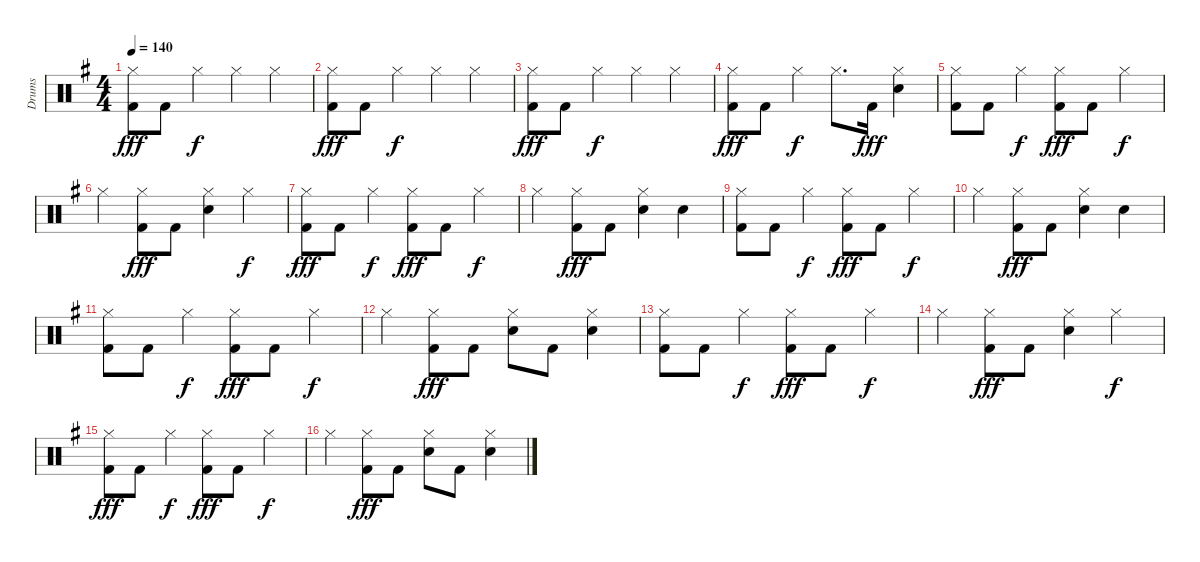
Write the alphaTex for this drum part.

\track ("Drums" "Drums") {instrument percussion}
\staff {score}
\articulation defaults
\ts (4 4)
\tempo 140
\clef neutral
\ks eminor
("Hi-Hat (closed)" "Kick (hit) 2").8{dy fff} "Kick (hit) 2".8 "Hi-Hat (closed)".4{dy f} "Hi-Hat (closed)".4 "Hi-Hat (closed)".4 |
("Hi-Hat (closed)" "Kick (hit) 2").8{dy fff} "Kick (hit) 2".8 "Hi-Hat (closed)".4{dy f} "Hi-Hat (closed)".4 "Hi-Hat (closed)".4 |
("Hi-Hat (closed)" "Kick (hit) 2").8{dy fff} "Kick (hit) 2".8 "Hi-Hat (closed)".4{dy f} "Hi-Hat (closed)".4 "Hi-Hat (closed)".4 |
("Hi-Hat (closed)" "Kick (hit) 2").8{dy fff} "Kick (hit) 2".8 "Hi-Hat (closed)".4{dy f} "Hi-Hat (closed)".8{d} "Kick (hit) 2".16{dy fff} ("Electric Snare (hit)" "Hi-Hat (closed)").4 |
("Hi-Hat (closed)" "Kick (hit) 2").8 "Kick (hit) 2".8 "Hi-Hat (closed)".4{dy f} ("Hi-Hat (closed)" "Kick (hit) 2").8{dy fff} "Kick (hit) 2".8 "Hi-Hat (closed)".4{dy f} |
"Hi-Hat (closed)".4 ("Hi-Hat (closed)" "Kick (hit) 2").8{dy fff} "Kick (hit) 2".8 ("Electric Snare (hit)" "Hi-Hat (closed)").4 "Hi-Hat (closed)".4{dy f} |
("Hi-Hat (closed)" "Kick (hit) 2").8{dy fff} "Kick (hit) 2".8 "Hi-Hat (closed)".4{dy f} ("Hi-Hat (closed)" "Kick (hit) 2").8{dy fff} "Kick (hit) 2".8 "Hi-Hat (closed)".4{dy f} |
"Hi-Hat (closed)".4 ("Hi-Hat (closed)" "Kick (hit) 2").8{dy fff} "Kick (hit) 2".8 ("Electric Snare (hit)" "Hi-Hat (closed)").4 "Electric Snare (hit)".4 |
("Hi-Hat (closed)" "Kick (hit) 2").8 "Kick (hit) 2".8 "Hi-Hat (closed)".4{dy f} ("Hi-Hat (closed)" "Kick (hit) 2").8{dy fff} "Kick (hit) 2".8 "Hi-Hat (closed)".4{dy f} |
"Hi-Hat (closed)".4 ("Hi-Hat (closed)" "Kick (hit) 2").8{dy fff} "Kick (hit) 2".8 ("Electric Snare (hit)" "Hi-Hat (closed)").4 "Electric Snare (hit)".4 |
("Hi-Hat (closed)" "Kick (hit) 2").8 "Kick (hit) 2".8 "Hi-Hat (closed)".4{dy f} ("Hi-Hat (closed)" "Kick (hit) 2").8{dy fff} "Kick (hit) 2".8 "Hi-Hat (closed)".4{dy f} |
"Hi-Hat (closed)".4 ("Hi-Hat (closed)" "Kick (hit) 2").8{dy fff} "Kick (hit) 2".8 ("Electric Snare (hit)" "Hi-Hat (closed)").8 "Kick (hit) 2".8 ("Electric Snare (hit)" "Hi-Hat (closed)").4 |
("Hi-Hat (closed)" "Kick (hit) 2").8 "Kick (hit) 2".8 "Hi-Hat (closed)".4{dy f} ("Hi-Hat (closed)" "Kick (hit) 2").8{dy fff} "Kick (hit) 2".8 "Hi-Hat (closed)".4{dy f} |
"Hi-Hat (closed)".4 ("Hi-Hat (closed)" "Kick (hit) 2").8{dy fff} "Kick (hit) 2".8 ("Electric Snare (hit)" "Hi-Hat (closed)").4 "Hi-Hat (closed)".4{dy f} |
("Hi-Hat (closed)" "Kick (hit) 2").8{dy fff} "Kick (hit) 2".8 "Hi-Hat (closed)".4{dy f} ("Hi-Hat (closed)" "Kick (hit) 2").8{dy fff} "Kick (hit) 2".8 "Hi-Hat (closed)".4{dy f} |
"Hi-Hat (closed)".4 ("Hi-Hat (closed)" "Kick (hit) 2").8{dy fff} "Kick (hit) 2".8 ("Electric Snare (hit)" "Hi-Hat (closed)").8 "Kick (hit) 2".8 ("Electric Snare (hit)" "Hi-Hat (closed)").4
